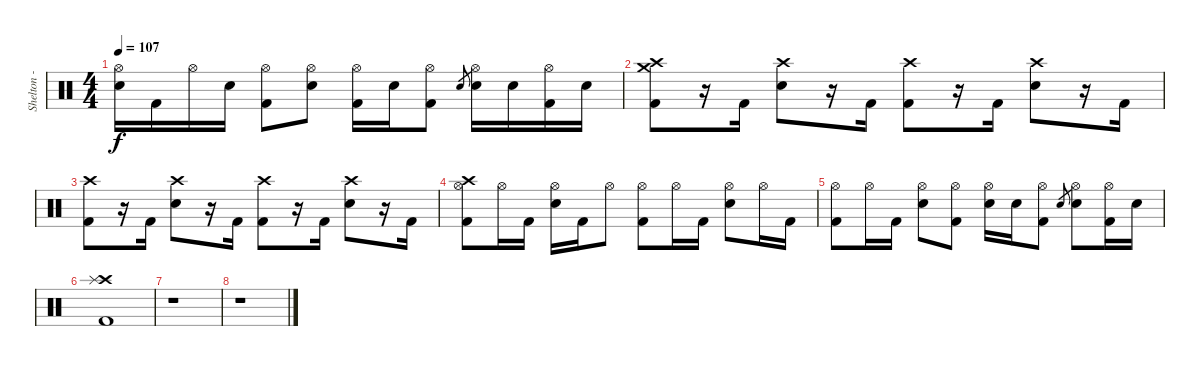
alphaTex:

\track ("Shelton - Drums" "Shelton - ") {instrument percussion}
\staff {score}
\articulation defaults
\ts (4 4)
\tempo 107
\clef neutral
\ks c
("Hi-Hat (open)" "Electric Snare (hit)").16{dy f} "Kick (hit) 2".16 "Hi-Hat (open)".16 "Electric Snare (hit)".16 ("Hi-Hat (open)" "Kick (hit) 2").8 ("Hi-Hat (open)" "Electric Snare (hit)").8 ("Hi-Hat (open)" "Kick (hit) 2").16 "Electric Snare (hit)".16 ("Hi-Hat (open)" "Kick (hit) 2").8 "Electric Snare (hit)".8{gr} ("Hi-Hat (open)" "Electric Snare (hit)").16 "Electric Snare (hit)".16 ("Hi-Hat (open)" "Kick (hit) 2").16 "Electric Snare (hit)".16 |
("Crash high (hit)" "Crash medium (hit)" "Kick (hit) 2").8 r.16 "Kick (hit) 2".16 ("Crash high (hit)" "Electric Snare (hit)").8 r.16 "Kick (hit) 2".16 ("Crash high (hit)" "Kick (hit) 2").8 r.16 "Kick (hit) 2".16 ("Crash high (hit)" "Electric Snare (hit)").8 r.16 "Kick (hit) 2".16 |
("Crash high (hit)" "Kick (hit) 2").8 r.16 "Kick (hit) 2".16 ("Crash high (hit)" "Electric Snare (hit)").8 r.16 "Kick (hit) 2".16 ("Crash high (hit)" "Kick (hit) 2").8 r.16 "Kick (hit) 2".16 ("Crash high (hit)" "Electric Snare (hit)").8 r.16 "Kick (hit) 2".16 |
("Hi-Hat (open)" "Crash high (hit)" "Kick (hit) 2").8 "Hi-Hat (open)".16 "Kick (hit) 2".16 ("Hi-Hat (open)" "Electric Snare (hit)").16 "Kick (hit) 2".16 "Hi-Hat (open)".8 ("Hi-Hat (open)" "Kick (hit) 2").8 "Hi-Hat (open)".16 "Kick (hit) 2".16 ("Hi-Hat (open)" "Electric Snare (hit)").8 "Hi-Hat (open)".16 "Kick (hit) 2".16 |
("Hi-Hat (open)" "Kick (hit) 2").8 "Hi-Hat (open)".16 "Kick (hit) 2".16 ("Hi-Hat (open)" "Electric Snare (hit)").8 ("Hi-Hat (open)" "Kick (hit) 2").8 ("Hi-Hat (open)" "Electric Snare (hit)").16 "Electric Snare (hit)".16 ("Hi-Hat (open)" "Kick (hit) 2").8 "Electric Snare (hit)".8{gr} ("Hi-Hat (open)" "Electric Snare (hit)").8 ("Hi-Hat (open)" "Kick (hit) 2").16 "Electric Snare (hit)".16 |
("Crash high (hit)" "Splash (hit)" "Kick (hit) 2").1 |
r.1 |
r.1
